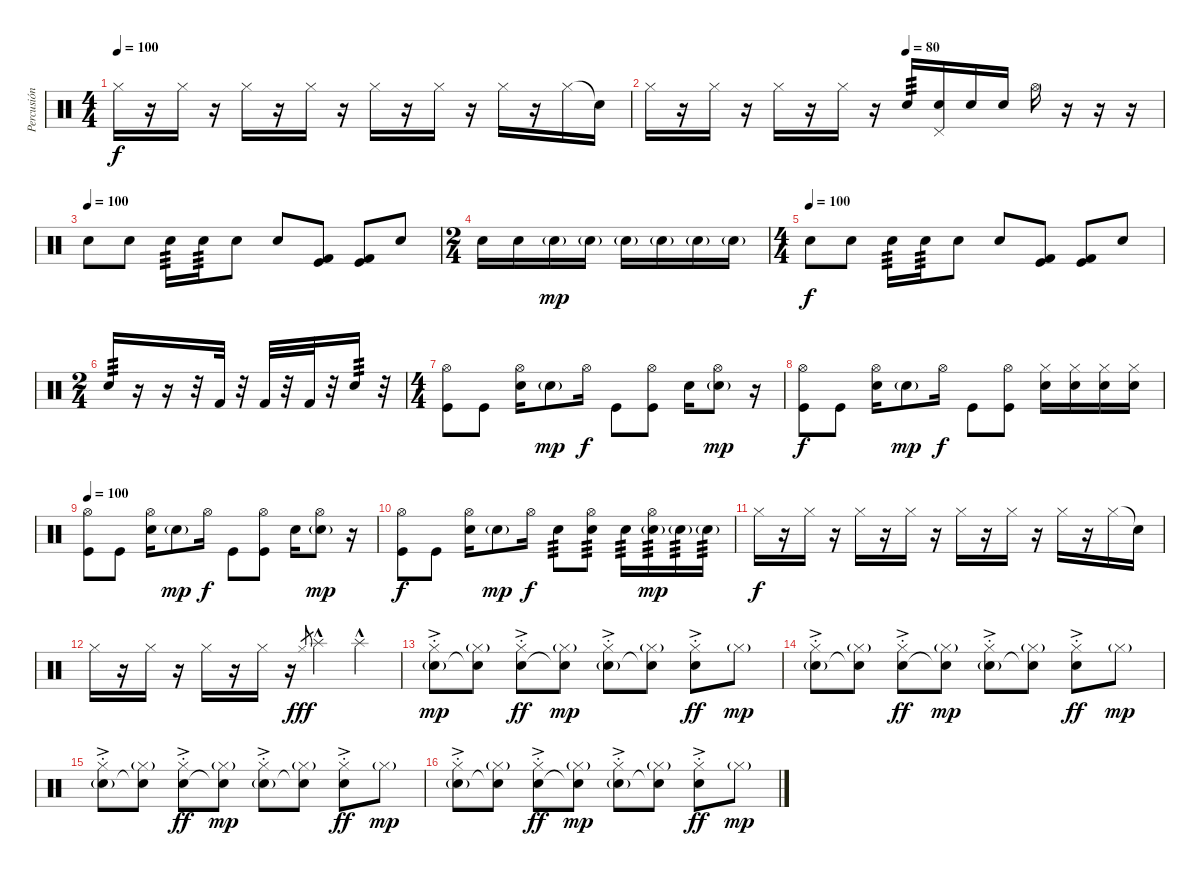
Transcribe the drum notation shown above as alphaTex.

\track ("Percusión" "Percusión") {instrument percussion}
\staff {score}
\articulation defaults
\ts (4 4)
\tempo 100
\clef neutral
\ks c "Hi-Hat (closed)".16{dy f}
r.16 "Hi-Hat (closed)".16 r.16 "Hi-Hat (closed)".16 r.16 "Hi-Hat (closed)".16 r.16 "Hi-Hat (closed)".16 r.16 "Hi-Hat (closed)".16 r.16 "Hi-Hat (closed)".16 r.16 "Hi-Hat (closed)".16 "Snare (hit)"{t}.16 |
\tempo (80 0.5)
"Hi-Hat (closed)".16 r.16 "Hi-Hat (closed)".16 r.16 "Hi-Hat (closed)".16 r.16 "Hi-Hat (closed)".16 r.16 "Electric Snare (hit)".16{tp 3} ("Pedal Hi-Hat (hit)" "Snare (hit) 2").16 "Snare (hit) 2".16 "Snare (hit) 2".16 "Hi-Hat (open)".16 r.16 r.16 r.16 |
\tempo (100)
"Electric Snare (hit)".8 "Electric Snare (hit)".8 "Electric Snare (hit)".16{tp 3} "Electric Snare (hit)".16{tp 3} "Electric Snare (hit)".8 "Electric Snare (hit)".8 ("Kick (hit) 2" "Kick (hit)").8 ("Kick (hit) 2" "Kick (hit)").8 "Electric Snare (hit)".8 |
\ts (2 4)
"Electric Snare (hit)".16 "Electric Snare (hit)".16 "Electric Snare (hit)"{g}.16{dy mp} "Electric Snare (hit)"{g}.16 "Electric Snare (hit)"{g}.16 "Electric Snare (hit)"{g}.16 "Electric Snare (hit)"{g}.16 "Electric Snare (hit)"{g}.16 |
\ts (4 4)
\tempo (100)
"Electric Snare (hit)".8{dy f} "Electric Snare (hit)".8 "Electric Snare (hit)".16{tp 3} "Electric Snare (hit)".16{tp 3} "Electric Snare (hit)".8 "Electric Snare (hit)".8 ("Kick (hit) 2" "Kick (hit)").8 ("Kick (hit) 2" "Kick (hit)").8 "Electric Snare (hit)".8 |
\ts (2 4)
"Electric Snare (hit)".16{tp 3} r.16 r.16 r.32 "Kick (hit) 2".32 r.32 "Kick (hit) 2".32 r.32 "Kick (hit) 2".32 r.32 "Electric Snare (hit)".16{tp 3} r.32 |
\ts (4 4)
("Hi-Hat (open)" "Kick (hit)").8 "Kick (hit)".8 ("Hi-Hat (open)" "Electric Snare (hit)").16 "Electric Snare (hit)"{g}.8{dy mp} "Hi-Hat (open)".16{dy f} "Kick (hit)".8 ("Hi-Hat (open)" "Kick (hit)").8 "Electric Snare (hit)".16 ("Hi-Hat (open)" "Electric Snare (hit)"{g}).8{dy mp} r.16 |
("Hi-Hat (open)" "Kick (hit)").8{dy f} "Kick (hit)".8 ("Hi-Hat (open)" "Electric Snare (hit)").16 "Electric Snare (hit)"{g}.8{dy mp} "Hi-Hat (open)".16{dy f} "Kick (hit)".8 ("Hi-Hat (open)" "Kick (hit)").8 ("Hi-Hat (closed)" "Electric Snare (hit)").16 ("Hi-Hat (closed)" "Electric Snare (hit)").16 ("Hi-Hat (closed)" "Electric Snare (hit)").16 ("Hi-Hat (closed)" "Electric Snare (hit)").16 |
\tempo 100
("Hi-Hat (open)" "Kick (hit)").8 "Kick (hit)".8 ("Hi-Hat (open)" "Electric Snare (hit)").16 "Electric Snare (hit)"{g}.8{dy mp} "Hi-Hat (open)".16{dy f} "Kick (hit)".8 ("Hi-Hat (open)" "Kick (hit)").8 "Electric Snare (hit)".16 ("Hi-Hat (open)" "Electric Snare (hit)"{g}).8{dy mp} r.16 |
("Hi-Hat (open)" "Kick (hit)").8{dy f} "Kick (hit)".8 ("Hi-Hat (open)" "Electric Snare (hit)").16 "Electric Snare (hit)"{g}.8{dy mp} "Hi-Hat (open)".16{dy f} "Electric Snare (hit)".8{tp 3} ("Hi-Hat (open)" "Electric Snare (hit)").8{tp 3} "Electric Snare (hit)".16{tp 3} ("Hi-Hat (open)" "Electric Snare (hit)"{g}).16{tp 3 dy mp} "Electric Snare (hit)"{g}.16{tp 3} "Electric Snare (hit)"{g}.16{tp 3} |
"Hi-Hat (closed)".16{dy f} r.16 "Hi-Hat (closed)".16 r.16 "Hi-Hat (closed)".16 r.16 "Hi-Hat (closed)".16 r.16 "Hi-Hat (closed)".16 r.16 "Hi-Hat (closed)".16 r.16 "Hi-Hat (closed)".16 r.16 "Hi-Hat (closed)".16 "Snare (hit)"{t}.16 |
"Hi-Hat (closed)".16 r.16 "Hi-Hat (closed)".16 r.16 "Hi-Hat (closed)".16 r.16 "Hi-Hat (closed)".16 r.16 "Hi-Hat (closed)".8{gr dy fff} "Splash (hit)"{hac}.4 "Splash (hit)"{hac}.4 |
("Hi-Hat (closed)"{ac st} "Electric Snare (hit)"{g}).8{dy mp} ("Hi-Hat (closed)"{g} "Electric Snare (hit)"{t}).8 ("Hi-Hat (closed)"{ac st} "Electric Snare (hit)").8{dy ff} ("Hi-Hat (closed)"{g} "Electric Snare (hit)"{t}).8{dy mp} ("Hi-Hat (closed)"{ac st} "Electric Snare (hit)"{g}).8 ("Hi-Hat (closed)"{g} "Snare (hit)"{t}).8 ("Hi-Hat (closed)"{ac st} "Electric Snare (hit)").8{dy ff} "Hi-Hat (closed)"{g}.8{dy mp} |
("Hi-Hat (closed)"{ac st} "Electric Snare (hit)"{g}).8 ("Hi-Hat (closed)"{g} "Electric Snare (hit)"{t}).8 ("Hi-Hat (closed)"{ac st} "Electric Snare (hit)").8{dy ff} ("Hi-Hat (closed)"{g} "Electric Snare (hit)"{t}).8{dy mp} ("Hi-Hat (closed)"{ac st} "Electric Snare (hit)"{g}).8 ("Hi-Hat (closed)"{g} "Snare (hit)"{t}).8 ("Hi-Hat (closed)"{ac st} "Electric Snare (hit)").8{dy ff} "Hi-Hat (closed)"{g}.8{dy mp} |
("Hi-Hat (closed)"{ac st} "Electric Snare (hit)"{g}).8 ("Hi-Hat (closed)"{g} "Electric Snare (hit)"{t}).8 ("Hi-Hat (closed)"{ac st} "Electric Snare (hit)").8{dy ff} ("Hi-Hat (closed)"{g} "Electric Snare (hit)"{t}).8{dy mp} ("Hi-Hat (closed)"{ac st} "Electric Snare (hit)"{g}).8 ("Hi-Hat (closed)"{g} "Snare (hit)"{t}).8 ("Hi-Hat (closed)"{ac st} "Electric Snare (hit)").8{dy ff} "Hi-Hat (closed)"{g}.8{dy mp} |
("Hi-Hat (closed)"{ac st} "Electric Snare (hit)"{g}).8 ("Hi-Hat (closed)"{g} "Electric Snare (hit)"{t}).8 ("Hi-Hat (closed)"{ac st} "Electric Snare (hit)").8{dy ff} ("Hi-Hat (closed)"{g} "Electric Snare (hit)"{t}).8{dy mp} ("Hi-Hat (closed)"{ac st} "Electric Snare (hit)"{g}).8 ("Hi-Hat (closed)"{g} "Snare (hit)"{t}).8 ("Hi-Hat (closed)"{ac st} "Electric Snare (hit)").8{dy ff} "Hi-Hat (closed)"{g}.8{dy mp}
